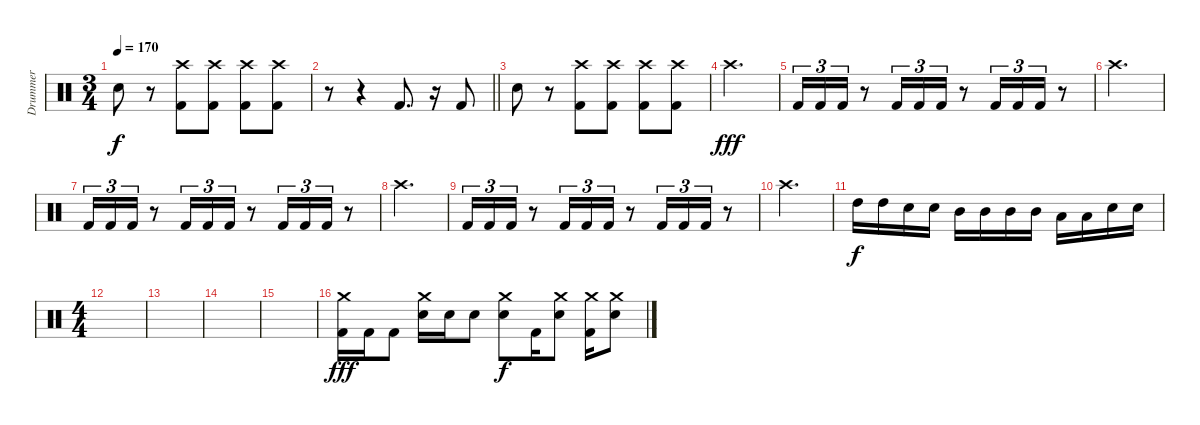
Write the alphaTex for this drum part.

\track ("Drummer" "Drummer") {instrument percussion}
\staff {score}
\articulation defaults
\ts (3 4)
\tempo 170
\clef neutral
\ks c "Electric Snare (hit)".8{dy f}
r.8 ("Crash high (hit)" "Kick (hit) 2").8 ("Crash high (hit)" "Kick (hit) 2").8 ("Crash high (hit)" "Kick (hit) 2").8 ("Crash high (hit)" "Kick (hit) 2").8 |
\barLineRight lightlight
r.8 r.4 "Kick (hit) 2".8{d} r.16 "Kick (hit) 2".8 |
"Electric Snare (hit)".8 r.8 ("Crash high (hit)" "Kick (hit) 2").8 ("Crash high (hit)" "Kick (hit) 2").8 ("Crash high (hit)" "Kick (hit) 2").8 ("Crash high (hit)" "Kick (hit) 2").8 |
"Crash high (hit)".2{d dy fff} |
"Kick (hit) 2".16{tu (3 2)} "Kick (hit) 2".16{tu (3 2)} "Kick (hit) 2".16{tu (3 2)} r.8 "Kick (hit) 2".16{tu (3 2)} "Kick (hit) 2".16{tu (3 2)} "Kick (hit) 2".16{tu (3 2)} r.8 "Kick (hit) 2".16{tu (3 2)} "Kick (hit) 2".16{tu (3 2)} "Kick (hit) 2".16{tu (3 2)} r.8 |
"Crash high (hit)".2{d} |
"Kick (hit) 2".16{tu (3 2)} "Kick (hit) 2".16{tu (3 2)} "Kick (hit) 2".16{tu (3 2)} r.8 "Kick (hit) 2".16{tu (3 2)} "Kick (hit) 2".16{tu (3 2)} "Kick (hit) 2".16{tu (3 2)} r.8 "Kick (hit) 2".16{tu (3 2)} "Kick (hit) 2".16{tu (3 2)} "Kick (hit) 2".16{tu (3 2)} r.8 |
"Crash high (hit)".2{d} |
"Kick (hit) 2".16{tu (3 2)} "Kick (hit) 2".16{tu (3 2)} "Kick (hit) 2".16{tu (3 2)} r.8 "Kick (hit) 2".16{tu (3 2)} "Kick (hit) 2".16{tu (3 2)} "Kick (hit) 2".16{tu (3 2)} r.8 "Kick (hit) 2".16{tu (3 2)} "Kick (hit) 2".16{tu (3 2)} "Kick (hit) 2".16{tu (3 2)} r.8 |
"Crash high (hit)".2{d} |
"High Tom (hit)".16{dy f} "High Tom (hit)".16 "Electric Snare (hit)".16 "Electric Snare (hit)".16 "Mid Tom (hit)".16 "Mid Tom (hit)".16 "Mid Tom (hit)".16 "Mid Tom (hit)".16 "Low Tom (hit)".16 "Low Tom (hit)".16 "Electric Snare (hit)".16 "Electric Snare (hit)".16 |
\ts (4 4)
|
|
|
|
("Crash medium (hit)" "Kick (hit) 2").16{dy fff} "Kick (hit) 2".16 "Kick (hit) 2".8 ("Crash medium (hit)" "Electric Snare (hit)").16 "Electric Snare (hit)".16 "Electric Snare (hit)".8 ("Crash medium (hit)" "Electric Snare (hit)").8{dy f} "Kick (hit) 2".16 ("Crash medium (hit)" "Electric Snare (hit)").8 ("Crash medium (hit)" "Kick (hit) 2").16 ("Crash medium (hit)" "Electric Snare (hit)").8
